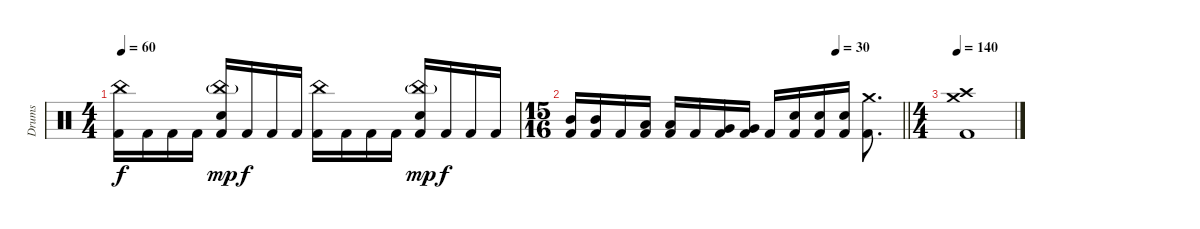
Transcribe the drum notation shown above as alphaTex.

\track ("Drums" "Drums") {instrument percussion}
\staff {score}
\articulation defaults
\ts (4 4)
\tempo 60
\clef neutral
\ks c
("Kick (hit) 2" "China (hit)").16{dy f} "Kick (hit) 2".16 "Kick (hit) 2".16 "Kick (hit) 2".16 ("Kick (hit) 2" "Snare (hit) 2" "China (hit)"{g}).16{dy mp} "Kick (hit) 2".16{dy f} "Kick (hit) 2".16 "Kick (hit) 2".16 ("Kick (hit) 2" "China (hit)").16 "Kick (hit) 2".16 "Kick (hit) 2".16 "Kick (hit) 2".16 ("Kick (hit) 2" "Snare (hit) 2" "China (hit)"{g}).16{dy mp} "Kick (hit) 2".16{dy f} "Kick (hit) 2".16 "Kick (hit) 2".16 |
\ts (15 16)
\tempo (30 0.8)
\barLineRight lightlight
("Kick (hit) 2" "Mid Tom (hit)").16 ("Kick (hit) 2" "Mid Tom (hit)").16 "Kick (hit) 2".16 ("Kick (hit) 2" "Low Tom (hit)").16 ("Kick (hit) 2" "Low Tom (hit)").16 "Kick (hit) 2".16 ("Kick (hit) 2" "Very Low Tom (hit)").16 ("Kick (hit) 2" "Very Low Tom (hit)").16 "Kick (hit) 2".16 ("Kick (hit) 2" "Snare (hit) 2").16 ("Kick (hit) 2" "Snare (hit) 2").16 ("Kick (hit) 2" "Snare (hit) 2").16 ("Kick (hit) 2" "Crash medium (hit)").8{d} |
\ts (4 4)
\tempo 140
("Kick (hit) 2" "Crash high (hit)" "Crash medium (hit)").1
